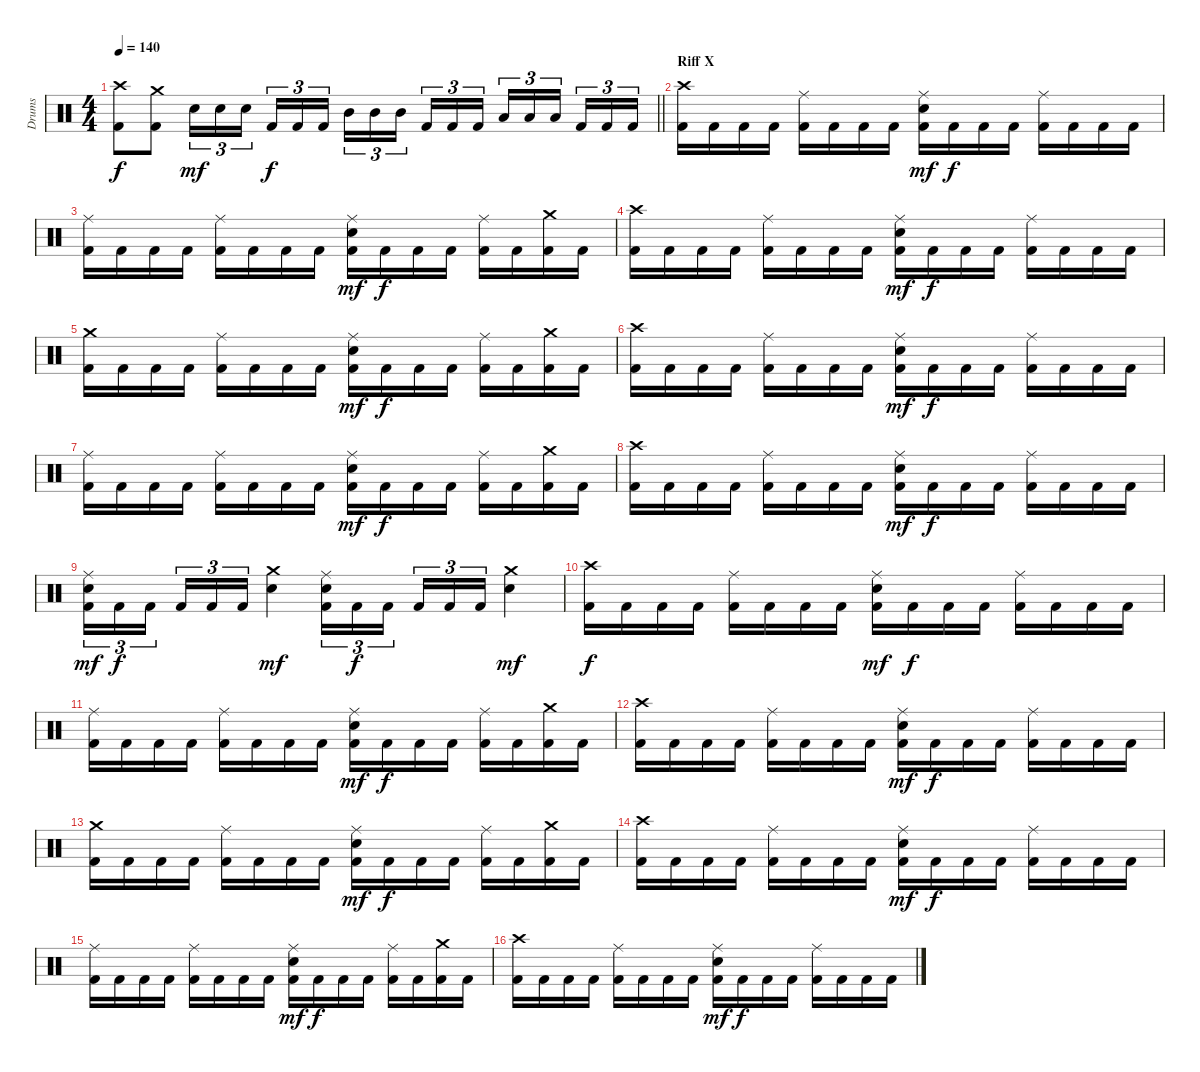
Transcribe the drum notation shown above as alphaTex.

\track ("Drums" "Drums") {instrument percussion}
\staff {score}
\articulation defaults
\ts (4 4)
\tempo 140
\clef neutral
\barLineRight lightlight
\ks c
("Crash high (hit)" "Kick (hit) 2").8{dy f} ("Crash medium (hit)" "Kick (hit) 2").8 "Electric Snare (hit)".16{tu (3 2) dy mf} "Electric Snare (hit)".16{tu (3 2)} "Electric Snare (hit)".16{tu (3 2) beam splitsecondary} "Kick (hit) 2".16{tu (3 2) dy f} "Kick (hit) 2".16{tu (3 2)} "Kick (hit) 2".16{tu (3 2)} "Mid Tom (hit)".16{tu (3 2)} "Mid Tom (hit)".16{tu (3 2)} "Mid Tom (hit)".16{tu (3 2) beam splitsecondary} "Kick (hit) 2".16{tu (3 2)} "Kick (hit) 2".16{tu (3 2)} "Kick (hit) 2".16{tu (3 2)} "Low Tom (hit)".16{tu (3 2)} "Low Tom (hit)".16{tu (3 2)} "Low Tom (hit)".16{tu (3 2) beam splitsecondary} "Kick (hit) 2".16{tu (3 2)} "Kick (hit) 2".16{tu (3 2)} "Kick (hit) 2".16{tu (3 2)} |
\section ("" "Riff X")
("Crash high (hit)" "Kick (hit) 2").16 "Kick (hit) 2".16 "Kick (hit) 2".16 "Kick (hit) 2".16 ("Ride (middle)" "Kick (hit) 2").16 "Kick (hit) 2".16 "Kick (hit) 2".16 "Kick (hit) 2".16 ("Ride (middle)" "Electric Snare (hit)" "Kick (hit) 2").16{dy mf} "Kick (hit) 2".16{dy f} "Kick (hit) 2".16 "Kick (hit) 2".16 ("Ride (middle)" "Kick (hit) 2").16 "Kick (hit) 2".16 "Kick (hit) 2".16 "Kick (hit) 2".16 |
("Ride (middle)" "Kick (hit) 2").16 "Kick (hit) 2".16 "Kick (hit) 2".16 "Kick (hit) 2".16 ("Ride (middle)" "Kick (hit) 2").16 "Kick (hit) 2".16 "Kick (hit) 2".16 "Kick (hit) 2".16 ("Ride (middle)" "Electric Snare (hit)" "Kick (hit) 2").16{dy mf} "Kick (hit) 2".16{dy f} "Kick (hit) 2".16 "Kick (hit) 2".16 ("Ride (middle)" "Kick (hit) 2").16 "Kick (hit) 2".16 ("Crash medium (hit)" "Kick (hit) 2").16 "Kick (hit) 2".16 |
("Crash high (hit)" "Kick (hit) 2").16 "Kick (hit) 2".16 "Kick (hit) 2".16 "Kick (hit) 2".16 ("Ride (middle)" "Kick (hit) 2").16 "Kick (hit) 2".16 "Kick (hit) 2".16 "Kick (hit) 2".16 ("Ride (middle)" "Electric Snare (hit)" "Kick (hit) 2").16{dy mf} "Kick (hit) 2".16{dy f} "Kick (hit) 2".16 "Kick (hit) 2".16 ("Ride (middle)" "Kick (hit) 2").16 "Kick (hit) 2".16 "Kick (hit) 2".16 "Kick (hit) 2".16 |
("Crash medium (hit)" "Kick (hit) 2").16 "Kick (hit) 2".16 "Kick (hit) 2".16 "Kick (hit) 2".16 ("Ride (middle)" "Kick (hit) 2").16 "Kick (hit) 2".16 "Kick (hit) 2".16 "Kick (hit) 2".16 ("Ride (middle)" "Electric Snare (hit)" "Kick (hit) 2").16{dy mf} "Kick (hit) 2".16{dy f} "Kick (hit) 2".16 "Kick (hit) 2".16 ("Ride (middle)" "Kick (hit) 2").16 "Kick (hit) 2".16 ("Crash medium (hit)" "Kick (hit) 2").16 "Kick (hit) 2".16 |
("Crash high (hit)" "Kick (hit) 2").16 "Kick (hit) 2".16 "Kick (hit) 2".16 "Kick (hit) 2".16 ("Ride (middle)" "Kick (hit) 2").16 "Kick (hit) 2".16 "Kick (hit) 2".16 "Kick (hit) 2".16 ("Ride (middle)" "Electric Snare (hit)" "Kick (hit) 2").16{dy mf} "Kick (hit) 2".16{dy f} "Kick (hit) 2".16 "Kick (hit) 2".16 ("Ride (middle)" "Kick (hit) 2").16 "Kick (hit) 2".16 "Kick (hit) 2".16 "Kick (hit) 2".16 |
("Ride (middle)" "Kick (hit) 2").16 "Kick (hit) 2".16 "Kick (hit) 2".16 "Kick (hit) 2".16 ("Ride (middle)" "Kick (hit) 2").16 "Kick (hit) 2".16 "Kick (hit) 2".16 "Kick (hit) 2".16 ("Ride (middle)" "Electric Snare (hit)" "Kick (hit) 2").16{dy mf} "Kick (hit) 2".16{dy f} "Kick (hit) 2".16 "Kick (hit) 2".16 ("Ride (middle)" "Kick (hit) 2").16 "Kick (hit) 2".16 ("Crash medium (hit)" "Kick (hit) 2").16 "Kick (hit) 2".16 |
("Crash high (hit)" "Kick (hit) 2").16 "Kick (hit) 2".16 "Kick (hit) 2".16 "Kick (hit) 2".16 ("Ride (middle)" "Kick (hit) 2").16 "Kick (hit) 2".16 "Kick (hit) 2".16 "Kick (hit) 2".16 ("Ride (middle)" "Electric Snare (hit)" "Kick (hit) 2").16{dy mf} "Kick (hit) 2".16{dy f} "Kick (hit) 2".16 "Kick (hit) 2".16 ("Ride (middle)" "Kick (hit) 2").16 "Kick (hit) 2".16 "Kick (hit) 2".16 "Kick (hit) 2".16 |
("Ride (middle)" "Electric Snare (hit)" "Kick (hit) 2").16{tu (3 2) dy mf} "Kick (hit) 2".16{tu (3 2) dy f} "Kick (hit) 2".16{tu (3 2) beam splitsecondary} "Kick (hit) 2".16{tu (3 2)} "Kick (hit) 2".16{tu (3 2)} "Kick (hit) 2".16{tu (3 2)} ("Crash medium (hit)" "Electric Snare (hit)").4{dy mf} ("Ride (middle)" "Electric Snare (hit)" "Kick (hit) 2").16{tu (3 2)} "Kick (hit) 2".16{tu (3 2) dy f} "Kick (hit) 2".16{tu (3 2) beam splitsecondary} "Kick (hit) 2".16{tu (3 2)} "Kick (hit) 2".16{tu (3 2)} "Kick (hit) 2".16{tu (3 2)} ("Crash medium (hit)" "Electric Snare (hit)").4{dy mf} |
("Crash high (hit)" "Kick (hit) 2").16{dy f} "Kick (hit) 2".16 "Kick (hit) 2".16 "Kick (hit) 2".16 ("Ride (middle)" "Kick (hit) 2").16 "Kick (hit) 2".16 "Kick (hit) 2".16 "Kick (hit) 2".16 ("Ride (middle)" "Electric Snare (hit)" "Kick (hit) 2").16{dy mf} "Kick (hit) 2".16{dy f} "Kick (hit) 2".16 "Kick (hit) 2".16 ("Ride (middle)" "Kick (hit) 2").16 "Kick (hit) 2".16 "Kick (hit) 2".16 "Kick (hit) 2".16 |
("Ride (middle)" "Kick (hit) 2").16 "Kick (hit) 2".16 "Kick (hit) 2".16 "Kick (hit) 2".16 ("Ride (middle)" "Kick (hit) 2").16 "Kick (hit) 2".16 "Kick (hit) 2".16 "Kick (hit) 2".16 ("Ride (middle)" "Electric Snare (hit)" "Kick (hit) 2").16{dy mf} "Kick (hit) 2".16{dy f} "Kick (hit) 2".16 "Kick (hit) 2".16 ("Ride (middle)" "Kick (hit) 2").16 "Kick (hit) 2".16 ("Crash medium (hit)" "Kick (hit) 2").16 "Kick (hit) 2".16 |
("Crash high (hit)" "Kick (hit) 2").16 "Kick (hit) 2".16 "Kick (hit) 2".16 "Kick (hit) 2".16 ("Ride (middle)" "Kick (hit) 2").16 "Kick (hit) 2".16 "Kick (hit) 2".16 "Kick (hit) 2".16 ("Ride (middle)" "Electric Snare (hit)" "Kick (hit) 2").16{dy mf} "Kick (hit) 2".16{dy f} "Kick (hit) 2".16 "Kick (hit) 2".16 ("Ride (middle)" "Kick (hit) 2").16 "Kick (hit) 2".16 "Kick (hit) 2".16 "Kick (hit) 2".16 |
("Crash medium (hit)" "Kick (hit) 2").16 "Kick (hit) 2".16 "Kick (hit) 2".16 "Kick (hit) 2".16 ("Ride (middle)" "Kick (hit) 2").16 "Kick (hit) 2".16 "Kick (hit) 2".16 "Kick (hit) 2".16 ("Ride (middle)" "Electric Snare (hit)" "Kick (hit) 2").16{dy mf} "Kick (hit) 2".16{dy f} "Kick (hit) 2".16 "Kick (hit) 2".16 ("Ride (middle)" "Kick (hit) 2").16 "Kick (hit) 2".16 ("Crash medium (hit)" "Kick (hit) 2").16 "Kick (hit) 2".16 |
("Crash high (hit)" "Kick (hit) 2").16 "Kick (hit) 2".16 "Kick (hit) 2".16 "Kick (hit) 2".16 ("Ride (middle)" "Kick (hit) 2").16 "Kick (hit) 2".16 "Kick (hit) 2".16 "Kick (hit) 2".16 ("Ride (middle)" "Electric Snare (hit)" "Kick (hit) 2").16{dy mf} "Kick (hit) 2".16{dy f} "Kick (hit) 2".16 "Kick (hit) 2".16 ("Ride (middle)" "Kick (hit) 2").16 "Kick (hit) 2".16 "Kick (hit) 2".16 "Kick (hit) 2".16 |
("Ride (middle)" "Kick (hit) 2").16 "Kick (hit) 2".16 "Kick (hit) 2".16 "Kick (hit) 2".16 ("Ride (middle)" "Kick (hit) 2").16 "Kick (hit) 2".16 "Kick (hit) 2".16 "Kick (hit) 2".16 ("Ride (middle)" "Electric Snare (hit)" "Kick (hit) 2").16{dy mf} "Kick (hit) 2".16{dy f} "Kick (hit) 2".16 "Kick (hit) 2".16 ("Ride (middle)" "Kick (hit) 2").16 "Kick (hit) 2".16 ("Crash medium (hit)" "Kick (hit) 2").16 "Kick (hit) 2".16 |
("Crash high (hit)" "Kick (hit) 2").16 "Kick (hit) 2".16 "Kick (hit) 2".16 "Kick (hit) 2".16 ("Ride (middle)" "Kick (hit) 2").16 "Kick (hit) 2".16 "Kick (hit) 2".16 "Kick (hit) 2".16 ("Ride (middle)" "Electric Snare (hit)" "Kick (hit) 2").16{dy mf} "Kick (hit) 2".16{dy f} "Kick (hit) 2".16 "Kick (hit) 2".16 ("Ride (middle)" "Kick (hit) 2").16 "Kick (hit) 2".16 "Kick (hit) 2".16 "Kick (hit) 2".16
